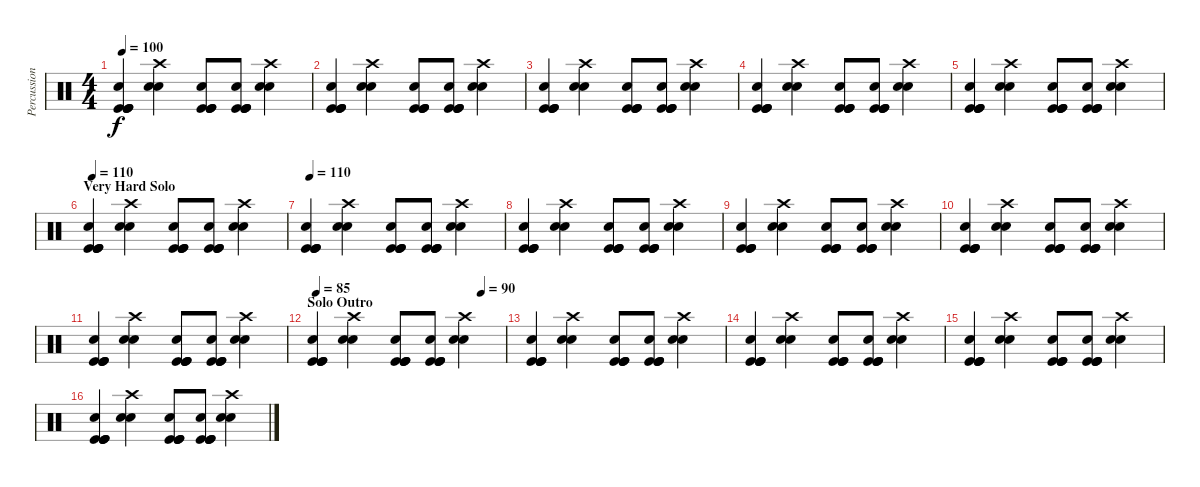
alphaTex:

\track ("Percussion" "Percussion") {instrument percussion}
\staff {score}
\articulation defaults
\ts (4 4)
\tempo 100
\clef neutral
\ks c
("Electric Snare (hit)" "Kick (hit)" "Kick (hit)" "Kick (hit)" "Kick (hit)").4{dy f} ("Electric Snare (hit)" "Electric Snare (hit)" "Crash high (hit)").4 ("Electric Snare (hit)" "Kick (hit)" "Kick (hit)" "Kick (hit)" "Kick (hit)").8 ("Electric Snare (hit)" "Kick (hit)" "Kick (hit)" "Kick (hit)" "Kick (hit)").8 ("Electric Snare (hit)" "Electric Snare (hit)" "Crash high (hit)").4 |
("Electric Snare (hit)" "Kick (hit)" "Kick (hit)" "Kick (hit)" "Kick (hit)").4 ("Electric Snare (hit)" "Electric Snare (hit)" "Crash high (hit)").4 ("Electric Snare (hit)" "Kick (hit)" "Kick (hit)" "Kick (hit)" "Kick (hit)").8 ("Electric Snare (hit)" "Kick (hit)" "Kick (hit)" "Kick (hit)" "Kick (hit)").8 ("Electric Snare (hit)" "Electric Snare (hit)" "Crash high (hit)").4 |
("Electric Snare (hit)" "Kick (hit)" "Kick (hit)" "Kick (hit)" "Kick (hit)").4 ("Electric Snare (hit)" "Electric Snare (hit)" "Crash high (hit)").4 ("Electric Snare (hit)" "Kick (hit)" "Kick (hit)" "Kick (hit)" "Kick (hit)").8 ("Electric Snare (hit)" "Kick (hit)" "Kick (hit)" "Kick (hit)" "Kick (hit)").8 ("Electric Snare (hit)" "Electric Snare (hit)" "Crash high (hit)").4 |
("Electric Snare (hit)" "Kick (hit)" "Kick (hit)" "Kick (hit)" "Kick (hit)").4 ("Electric Snare (hit)" "Electric Snare (hit)" "Crash high (hit)").4 ("Electric Snare (hit)" "Kick (hit)" "Kick (hit)" "Kick (hit)" "Kick (hit)").8 ("Electric Snare (hit)" "Kick (hit)" "Kick (hit)" "Kick (hit)" "Kick (hit)").8 ("Electric Snare (hit)" "Electric Snare (hit)" "Crash high (hit)").4 |
("Electric Snare (hit)" "Kick (hit)" "Kick (hit)" "Kick (hit)" "Kick (hit)").4 ("Electric Snare (hit)" "Electric Snare (hit)" "Crash high (hit)").4 ("Electric Snare (hit)" "Kick (hit)" "Kick (hit)" "Kick (hit)" "Kick (hit)").8 ("Electric Snare (hit)" "Kick (hit)" "Kick (hit)" "Kick (hit)" "Kick (hit)").8 ("Electric Snare (hit)" "Electric Snare (hit)" "Crash high (hit)").4 |
\section ("" "Very Hard Solo")
\tempo 110
("Electric Snare (hit)" "Kick (hit)" "Kick (hit)" "Kick (hit)" "Kick (hit)").4 ("Electric Snare (hit)" "Electric Snare (hit)" "Crash high (hit)").4 ("Electric Snare (hit)" "Kick (hit)" "Kick (hit)" "Kick (hit)" "Kick (hit)").8 ("Electric Snare (hit)" "Kick (hit)" "Kick (hit)" "Kick (hit)" "Kick (hit)").8 ("Electric Snare (hit)" "Electric Snare (hit)" "Crash high (hit)").4 |
\tempo 110
("Electric Snare (hit)" "Kick (hit)" "Kick (hit)" "Kick (hit)" "Kick (hit)").4 ("Electric Snare (hit)" "Electric Snare (hit)" "Crash high (hit)").4 ("Electric Snare (hit)" "Kick (hit)" "Kick (hit)" "Kick (hit)" "Kick (hit)").8 ("Electric Snare (hit)" "Kick (hit)" "Kick (hit)" "Kick (hit)" "Kick (hit)").8 ("Electric Snare (hit)" "Electric Snare (hit)" "Crash high (hit)").4 |
("Electric Snare (hit)" "Kick (hit)" "Kick (hit)" "Kick (hit)" "Kick (hit)").4 ("Electric Snare (hit)" "Electric Snare (hit)" "Crash high (hit)").4 ("Electric Snare (hit)" "Kick (hit)" "Kick (hit)" "Kick (hit)" "Kick (hit)").8 ("Electric Snare (hit)" "Kick (hit)" "Kick (hit)" "Kick (hit)" "Kick (hit)").8 ("Electric Snare (hit)" "Electric Snare (hit)" "Crash high (hit)").4 |
("Electric Snare (hit)" "Kick (hit)" "Kick (hit)" "Kick (hit)" "Kick (hit)").4 ("Electric Snare (hit)" "Electric Snare (hit)" "Crash high (hit)").4 ("Electric Snare (hit)" "Kick (hit)" "Kick (hit)" "Kick (hit)" "Kick (hit)").8 ("Electric Snare (hit)" "Kick (hit)" "Kick (hit)" "Kick (hit)" "Kick (hit)").8 ("Electric Snare (hit)" "Electric Snare (hit)" "Crash high (hit)").4 |
("Electric Snare (hit)" "Kick (hit)" "Kick (hit)" "Kick (hit)" "Kick (hit)").4 ("Electric Snare (hit)" "Electric Snare (hit)" "Crash high (hit)").4 ("Electric Snare (hit)" "Kick (hit)" "Kick (hit)" "Kick (hit)" "Kick (hit)").8 ("Electric Snare (hit)" "Kick (hit)" "Kick (hit)" "Kick (hit)" "Kick (hit)").8 ("Electric Snare (hit)" "Electric Snare (hit)" "Crash high (hit)").4 |
("Electric Snare (hit)" "Kick (hit)" "Kick (hit)" "Kick (hit)" "Kick (hit)").4 ("Electric Snare (hit)" "Electric Snare (hit)" "Crash high (hit)").4 ("Electric Snare (hit)" "Kick (hit)" "Kick (hit)" "Kick (hit)" "Kick (hit)").8 ("Electric Snare (hit)" "Kick (hit)" "Kick (hit)" "Kick (hit)" "Kick (hit)").8 ("Electric Snare (hit)" "Electric Snare (hit)" "Crash high (hit)").4 |
\section ("" "Solo Outro")
\tempo 85
\tempo (90 0.875)
("Electric Snare (hit)" "Kick (hit)" "Kick (hit)" "Kick (hit)" "Kick (hit)").4 ("Electric Snare (hit)" "Electric Snare (hit)" "Crash high (hit)").4 ("Electric Snare (hit)" "Kick (hit)" "Kick (hit)" "Kick (hit)" "Kick (hit)").8 ("Electric Snare (hit)" "Kick (hit)" "Kick (hit)" "Kick (hit)" "Kick (hit)").8 ("Electric Snare (hit)" "Electric Snare (hit)" "Crash high (hit)").4 |
("Electric Snare (hit)" "Kick (hit)" "Kick (hit)" "Kick (hit)" "Kick (hit)").4 ("Electric Snare (hit)" "Electric Snare (hit)" "Crash high (hit)").4 ("Electric Snare (hit)" "Kick (hit)" "Kick (hit)" "Kick (hit)" "Kick (hit)").8 ("Electric Snare (hit)" "Kick (hit)" "Kick (hit)" "Kick (hit)" "Kick (hit)").8 ("Electric Snare (hit)" "Electric Snare (hit)" "Crash high (hit)").4 |
("Electric Snare (hit)" "Kick (hit)" "Kick (hit)" "Kick (hit)" "Kick (hit)").4 ("Electric Snare (hit)" "Electric Snare (hit)" "Crash high (hit)").4 ("Electric Snare (hit)" "Kick (hit)" "Kick (hit)" "Kick (hit)" "Kick (hit)").8 ("Electric Snare (hit)" "Kick (hit)" "Kick (hit)" "Kick (hit)" "Kick (hit)").8 ("Electric Snare (hit)" "Electric Snare (hit)" "Crash high (hit)").4 |
("Electric Snare (hit)" "Kick (hit)" "Kick (hit)" "Kick (hit)" "Kick (hit)").4 ("Electric Snare (hit)" "Electric Snare (hit)" "Crash high (hit)").4 ("Electric Snare (hit)" "Kick (hit)" "Kick (hit)" "Kick (hit)" "Kick (hit)").8 ("Electric Snare (hit)" "Kick (hit)" "Kick (hit)" "Kick (hit)" "Kick (hit)").8 ("Electric Snare (hit)" "Electric Snare (hit)" "Crash high (hit)").4 |
("Electric Snare (hit)" "Kick (hit)" "Kick (hit)" "Kick (hit)" "Kick (hit)").4 ("Electric Snare (hit)" "Electric Snare (hit)" "Crash high (hit)").4 ("Electric Snare (hit)" "Kick (hit)" "Kick (hit)" "Kick (hit)" "Kick (hit)").8 ("Electric Snare (hit)" "Kick (hit)" "Kick (hit)" "Kick (hit)" "Kick (hit)").8 ("Electric Snare (hit)" "Electric Snare (hit)" "Crash high (hit)").4
